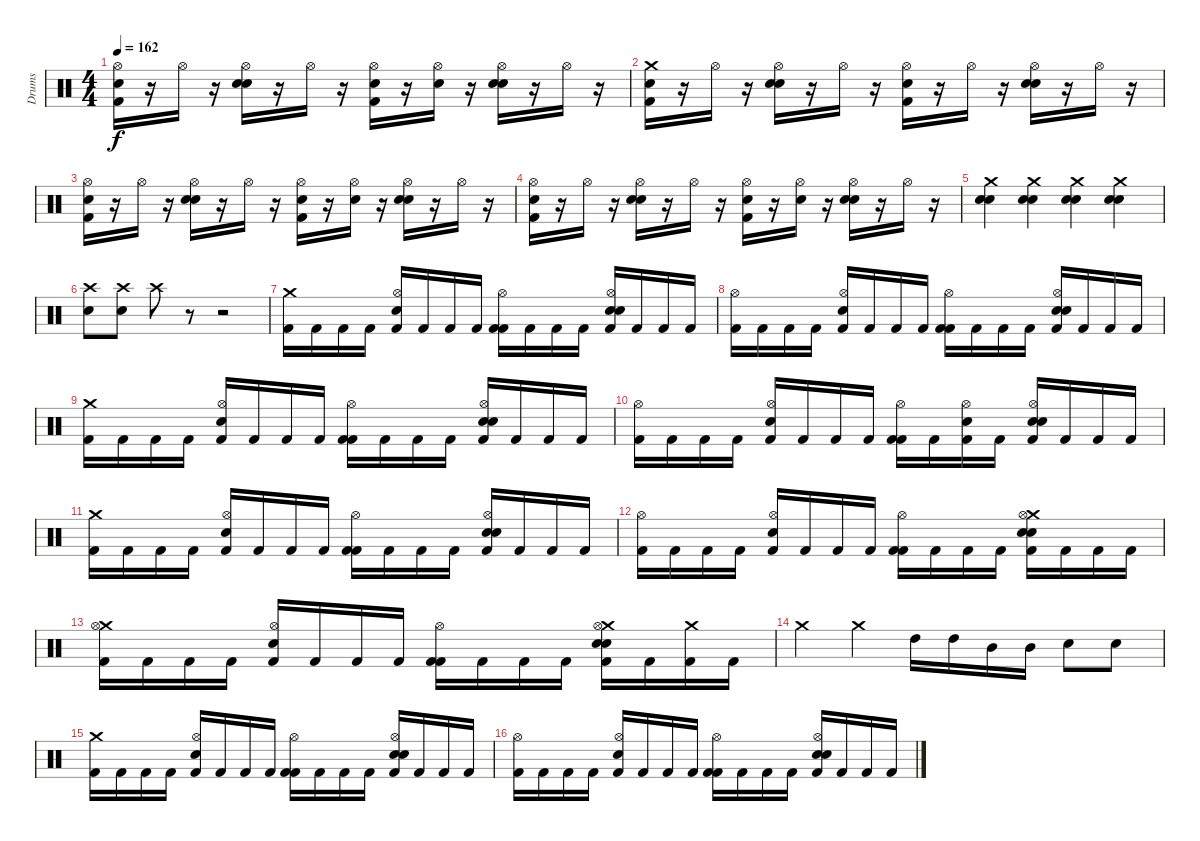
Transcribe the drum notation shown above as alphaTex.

\track ("Drums" "Drums") {instrument percussion}
\staff {score}
\articulation defaults
\ts (4 4)
\tempo 162
\clef neutral
\ks c
("Electric Snare (hit)" "Hi-Hat (open)" "Kick (hit) 2").16{dy f} r.16 "Hi-Hat (open)".16 r.16 ("Electric Snare (hit)" "Hi-Hat (open)" "Snare (hit) 2").16 r.16 "Hi-Hat (open)".16 r.16 ("Electric Snare (hit)" "Hi-Hat (open)" "Kick (hit) 2").16 r.16 ("Hi-Hat (open)" "Electric Snare (hit)").16 r.16 ("Electric Snare (hit)" "Hi-Hat (open)" "Snare (hit) 2").16 r.16 "Hi-Hat (open)".16 r.16 |
("Crash medium (hit)" "Electric Snare (hit)" "Kick (hit) 2").16 r.16 "Hi-Hat (open)".16 r.16 ("Electric Snare (hit)" "Hi-Hat (open)" "Snare (hit) 2").16 r.16 "Hi-Hat (open)".16 r.16 ("Electric Snare (hit)" "Hi-Hat (open)" "Kick (hit) 2").16 r.16 "Hi-Hat (open)".16 r.16 ("Electric Snare (hit)" "Hi-Hat (open)" "Snare (hit) 2").16 r.16 "Hi-Hat (open)".16 r.16 |
("Electric Snare (hit)" "Hi-Hat (open)" "Kick (hit) 2").16 r.16 "Hi-Hat (open)".16 r.16 ("Electric Snare (hit)" "Hi-Hat (open)" "Snare (hit) 2").16 r.16 "Hi-Hat (open)".16 r.16 ("Electric Snare (hit)" "Hi-Hat (open)" "Kick (hit) 2").16 r.16 ("Electric Snare (hit)" "Hi-Hat (open)").16 r.16 ("Electric Snare (hit)" "Hi-Hat (open)" "Snare (hit) 2").16 r.16 "Hi-Hat (open)".16 r.16 |
("Electric Snare (hit)" "Hi-Hat (open)" "Kick (hit) 2").16 r.16 "Hi-Hat (open)".16 r.16 ("Electric Snare (hit)" "Hi-Hat (open)" "Snare (hit) 2").16 r.16 "Hi-Hat (open)".16 r.16 ("Electric Snare (hit)" "Hi-Hat (open)" "Kick (hit) 2").16 r.16 ("Hi-Hat (open)" "Electric Snare (hit)").16 r.16 ("Electric Snare (hit)" "Hi-Hat (open)" "Snare (hit) 2").16 r.16 "Hi-Hat (open)".16 r.16 |
("Crash medium (hit)" "Electric Snare (hit)" "Electric Snare (hit)").4 ("Crash medium (hit)" "Electric Snare (hit)" "Electric Snare (hit)").4 ("Crash medium (hit)" "Electric Snare (hit)" "Electric Snare (hit)").4 ("Crash medium (hit)" "Electric Snare (hit)" "Electric Snare (hit)").4 |
("Crash high (hit)" "Electric Snare (hit)").8 ("Crash high (hit)" "Electric Snare (hit)").8 "Crash high (hit)".8 r.8 r.2 |
("Crash medium (hit)" "Kick (hit) 2").16 "Kick (hit) 2".16 "Kick (hit) 2".16 "Kick (hit) 2".16 ("Kick (hit) 2" "Electric Snare (hit)" "Hi-Hat (open)").16 "Kick (hit) 2".16 "Kick (hit) 2".16 "Kick (hit) 2".16 ("Kick (hit) 2" "Hi-Hat (open)" "Kick (hit) 2").16 "Kick (hit) 2".16 "Kick (hit) 2".16 "Kick (hit) 2".16 ("Kick (hit) 2" "Electric Snare (hit)" "Hi-Hat (open)" "Snare (hit) 2").16 "Kick (hit) 2".16 "Kick (hit) 2".16 "Kick (hit) 2".16 |
("Hi-Hat (open)" "Kick (hit) 2").16 "Kick (hit) 2".16 "Kick (hit) 2".16 "Kick (hit) 2".16 ("Kick (hit) 2" "Electric Snare (hit)" "Hi-Hat (open)").16 "Kick (hit) 2".16 "Kick (hit) 2".16 "Kick (hit) 2".16 ("Kick (hit) 2" "Hi-Hat (open)" "Kick (hit) 2").16 "Kick (hit) 2".16 "Kick (hit) 2".16 "Kick (hit) 2".16 ("Kick (hit) 2" "Electric Snare (hit)" "Hi-Hat (open)" "Snare (hit) 2").16 "Kick (hit) 2".16 "Kick (hit) 2".16 "Kick (hit) 2".16 |
("Crash medium (hit)" "Kick (hit) 2").16 "Kick (hit) 2".16 "Kick (hit) 2".16 "Kick (hit) 2".16 ("Kick (hit) 2" "Electric Snare (hit)" "Hi-Hat (open)").16 "Kick (hit) 2".16 "Kick (hit) 2".16 "Kick (hit) 2".16 ("Kick (hit) 2" "Hi-Hat (open)" "Kick (hit) 2").16 "Kick (hit) 2".16 "Kick (hit) 2".16 "Kick (hit) 2".16 ("Kick (hit) 2" "Electric Snare (hit)" "Hi-Hat (open)" "Snare (hit) 2").16 "Kick (hit) 2".16 "Kick (hit) 2".16 "Kick (hit) 2".16 |
("Hi-Hat (open)" "Kick (hit) 2").16 "Kick (hit) 2".16 "Kick (hit) 2".16 "Kick (hit) 2".16 ("Kick (hit) 2" "Electric Snare (hit)" "Hi-Hat (open)").16 "Kick (hit) 2".16 "Kick (hit) 2".16 "Kick (hit) 2".16 ("Kick (hit) 2" "Hi-Hat (open)" "Kick (hit) 2").16 "Kick (hit) 2".16 ("Kick (hit) 2" "Electric Snare (hit)" "Hi-Hat (open)").16 "Kick (hit) 2".16 ("Kick (hit) 2" "Electric Snare (hit)" "Hi-Hat (open)" "Snare (hit) 2").16 "Kick (hit) 2".16 "Kick (hit) 2".16 "Kick (hit) 2".16 |
("Crash medium (hit)" "Kick (hit) 2").16 "Kick (hit) 2".16 "Kick (hit) 2".16 "Kick (hit) 2".16 ("Kick (hit) 2" "Electric Snare (hit)" "Hi-Hat (open)").16 "Kick (hit) 2".16 "Kick (hit) 2".16 "Kick (hit) 2".16 ("Kick (hit) 2" "Hi-Hat (open)" "Kick (hit) 2").16 "Kick (hit) 2".16 "Kick (hit) 2".16 "Kick (hit) 2".16 ("Kick (hit) 2" "Electric Snare (hit)" "Hi-Hat (open)" "Snare (hit) 2").16 "Kick (hit) 2".16 "Kick (hit) 2".16 "Kick (hit) 2".16 |
("Hi-Hat (open)" "Kick (hit) 2").16 "Kick (hit) 2".16 "Kick (hit) 2".16 "Kick (hit) 2".16 ("Kick (hit) 2" "Electric Snare (hit)" "Hi-Hat (open)").16 "Kick (hit) 2".16 "Kick (hit) 2".16 "Kick (hit) 2".16 ("Kick (hit) 2" "Hi-Hat (open)" "Kick (hit) 2").16 "Kick (hit) 2".16 "Kick (hit) 2".16 "Kick (hit) 2".16 ("Crash medium (hit)" "Kick (hit) 2" "Electric Snare (hit)" "Hi-Hat (open)" "Snare (hit) 2").16 "Kick (hit) 2".16 "Kick (hit) 2".16 "Kick (hit) 2".16 |
("Crash medium (hit)" "Hi-Hat (open)" "Kick (hit) 2").16 "Kick (hit) 2".16 "Kick (hit) 2".16 "Kick (hit) 2".16 ("Kick (hit) 2" "Electric Snare (hit)" "Hi-Hat (open)").16 "Kick (hit) 2".16 "Kick (hit) 2".16 "Kick (hit) 2".16 ("Kick (hit) 2" "Hi-Hat (open)" "Kick (hit) 2").16 "Kick (hit) 2".16 "Kick (hit) 2".16 "Kick (hit) 2".16 ("Crash medium (hit)" "Kick (hit) 2" "Electric Snare (hit)" "Hi-Hat (open)" "Snare (hit) 2").16 "Kick (hit) 2".16 ("Crash medium (hit)" "Kick (hit) 2").16 "Kick (hit) 2".16 |
"Crash medium (hit)".4 "Crash medium (hit)".4 "High Tom (hit)".16 "High Tom (hit)".16 "Mid Tom (hit)".16 "Mid Tom (hit)".16 "Electric Snare (hit)".8 "Electric Snare (hit)".8 |
("Crash medium (hit)" "Kick (hit) 2").16 "Kick (hit) 2".16 "Kick (hit) 2".16 "Kick (hit) 2".16 ("Kick (hit) 2" "Electric Snare (hit)" "Hi-Hat (open)").16 "Kick (hit) 2".16 "Kick (hit) 2".16 "Kick (hit) 2".16 ("Kick (hit) 2" "Hi-Hat (open)" "Kick (hit) 2").16 "Kick (hit) 2".16 "Kick (hit) 2".16 "Kick (hit) 2".16 ("Kick (hit) 2" "Electric Snare (hit)" "Hi-Hat (open)" "Snare (hit) 2").16 "Kick (hit) 2".16 "Kick (hit) 2".16 "Kick (hit) 2".16 |
("Hi-Hat (open)" "Kick (hit) 2").16 "Kick (hit) 2".16 "Kick (hit) 2".16 "Kick (hit) 2".16 ("Kick (hit) 2" "Electric Snare (hit)" "Hi-Hat (open)").16 "Kick (hit) 2".16 "Kick (hit) 2".16 "Kick (hit) 2".16 ("Kick (hit) 2" "Hi-Hat (open)" "Kick (hit) 2").16 "Kick (hit) 2".16 "Kick (hit) 2".16 "Kick (hit) 2".16 ("Kick (hit) 2" "Electric Snare (hit)" "Hi-Hat (open)" "Snare (hit) 2").16 "Kick (hit) 2".16 "Kick (hit) 2".16 "Kick (hit) 2".16
